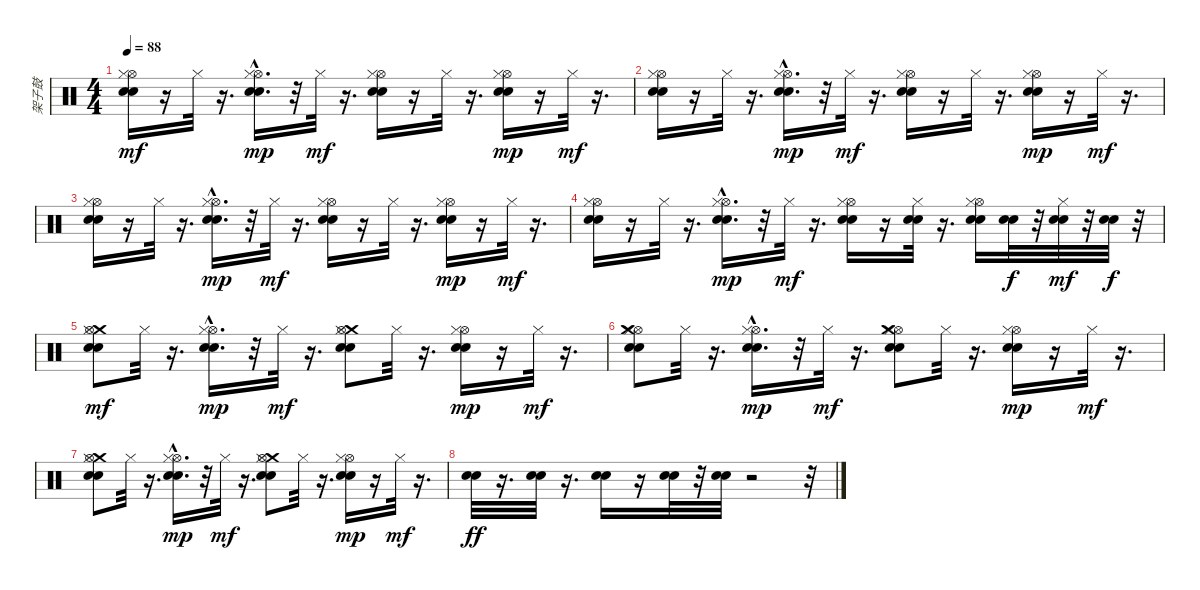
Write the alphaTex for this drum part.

\track ("架子鼓" "架子鼓") {instrument percussion}
\staff {score}
\articulation defaults
\ts (4 4)
\tempo 88
\clef neutral
\ks c
("Hi-Hat (open)" "Hi-Hat (closed)" "Electric Snare (hit)" "Electric Snare (hit)").16{dy mf} r.16 "Hi-Hat (closed)".32 r.16{d} ("Hi-Hat (open)"{hac} "Hi-Hat (closed)" "Electric Snare (hit)" "Metronome (bell)").16{d dy mp} r.32 "Hi-Hat (closed)".32{dy mf} r.16{d} ("Hi-Hat (open)" "Hi-Hat (closed)" "Electric Snare (hit)" "Electric Snare (hit)").16 r.16 "Hi-Hat (closed)".32 r.16{d} ("Hi-Hat (open)" "Hi-Hat (closed)" "Electric Snare (hit)" "Metronome (bell)").16{dy mp} r.16 "Hi-Hat (closed)".32{dy mf} r.16{d} |
("Hi-Hat (open)" "Hi-Hat (closed)" "Electric Snare (hit)" "Electric Snare (hit)").16 r.16 "Hi-Hat (closed)".32 r.16{d} ("Hi-Hat (open)"{hac} "Hi-Hat (closed)" "Electric Snare (hit)" "Metronome (bell)").16{d dy mp} r.32 "Hi-Hat (closed)".32{dy mf} r.16{d} ("Hi-Hat (open)" "Hi-Hat (closed)" "Electric Snare (hit)" "Electric Snare (hit)").16 r.16 "Hi-Hat (closed)".32 r.16{d} ("Hi-Hat (open)" "Hi-Hat (closed)" "Electric Snare (hit)" "Metronome (bell)").16{dy mp} r.16 "Hi-Hat (closed)".32{dy mf} r.16{d} |
("Hi-Hat (open)" "Hi-Hat (closed)" "Electric Snare (hit)" "Electric Snare (hit)").16 r.16 "Hi-Hat (closed)".32 r.16{d} ("Hi-Hat (open)"{hac} "Hi-Hat (closed)" "Electric Snare (hit)" "Metronome (bell)").16{d dy mp} r.32 "Hi-Hat (closed)".32{dy mf} r.16{d} ("Hi-Hat (open)" "Hi-Hat (closed)" "Electric Snare (hit)" "Electric Snare (hit)").16 r.16 "Hi-Hat (closed)".32 r.16{d} ("Hi-Hat (open)" "Hi-Hat (closed)" "Electric Snare (hit)" "Metronome (bell)").16{dy mp} r.16 "Hi-Hat (closed)".32{dy mf} r.16{d} |
("Hi-Hat (open)" "Hi-Hat (closed)" "Electric Snare (hit)" "Electric Snare (hit)").16 r.16 "Hi-Hat (closed)".32 r.16{d} ("Hi-Hat (open)"{hac} "Hi-Hat (closed)" "Electric Snare (hit)" "Metronome (bell)").16{d dy mp} r.32 "Hi-Hat (closed)".32{dy mf} r.16{d} ("Hi-Hat (open)" "Hi-Hat (closed)" "Electric Snare (hit)" "Metronome (bell)").16 r.16 ("Hi-Hat (closed)" "Electric Snare (hit)" "Metronome (bell)").32 r.16{d} ("Hi-Hat (open)" "Hi-Hat (closed)" "Electric Snare (hit)" "Metronome (bell)").16 ("Metronome (bell)" "Electric Snare (hit)").32{dy f} r.32 ("Hi-Hat (closed)" "Electric Snare (hit)" "Metronome (bell)").32{dy mf} r.32 ("Electric Snare (hit)" "Metronome (bell)").32{dy f} r.32 |
("Crash medium (hit)" "Hi-Hat (open)" "Hi-Hat (closed)" "Electric Snare (hit)" "Electric Snare (hit)").8{dy mf} "Hi-Hat (closed)".32 r.16{d} ("Hi-Hat (open)"{hac} "Hi-Hat (closed)" "Electric Snare (hit)" "Metronome (bell)").16{d dy mp} r.32 "Hi-Hat (closed)".32{dy mf} r.16{d} ("Crash medium (hit)" "Hi-Hat (open)" "Hi-Hat (closed)" "Electric Snare (hit)" "Electric Snare (hit)").8 "Hi-Hat (closed)".32 r.16{d} ("Hi-Hat (open)" "Hi-Hat (closed)" "Electric Snare (hit)" "Metronome (bell)").16{dy mp} r.16 "Hi-Hat (closed)".32{dy mf} r.16{d} |
("Hi-Hat (open)" "Hi-Hat (closed)" "Electric Snare (hit)" "Electric Snare (hit)" "Crash medium (hit)").8 "Hi-Hat (closed)".32 r.16{d} ("Hi-Hat (open)"{hac} "Hi-Hat (closed)" "Electric Snare (hit)" "Metronome (bell)").16{d dy mp} r.32 "Hi-Hat (closed)".32{dy mf} r.16{d} ("Hi-Hat (open)" "Hi-Hat (closed)" "Electric Snare (hit)" "Electric Snare (hit)" "Crash medium (hit)").8 "Hi-Hat (closed)".32 r.16{d} ("Hi-Hat (open)" "Hi-Hat (closed)" "Electric Snare (hit)" "Metronome (bell)").16{dy mp} r.16 "Hi-Hat (closed)".32{dy mf} r.16{d} |
("Crash medium (hit)" "Hi-Hat (open)" "Hi-Hat (closed)" "Electric Snare (hit)" "Electric Snare (hit)").8 "Hi-Hat (closed)".32 r.16{d} ("Hi-Hat (open)"{hac} "Hi-Hat (closed)" "Electric Snare (hit)" "Metronome (bell)").16{d dy mp} r.32 "Hi-Hat (closed)".32{dy mf} r.16{d} ("Crash medium (hit)" "Hi-Hat (open)" "Hi-Hat (closed)" "Electric Snare (hit)" "Electric Snare (hit)").8 "Hi-Hat (closed)".32 r.16{d} ("Hi-Hat (open)" "Hi-Hat (closed)" "Electric Snare (hit)" "Metronome (bell)").16{dy mp} r.16 "Hi-Hat (closed)".32{dy mf} r.16{d} |
("Electric Snare (hit)" "Metronome (bell)").32{dy ff} r.16{d} ("Electric Snare (hit)" "Metronome (bell)").32 r.16{d} ("Electric Snare (hit)" "Metronome (bell)").16 r.16 ("Electric Snare (hit)" "Metronome (bell)").32 r.32 ("Electric Snare (hit)" "Metronome (bell)").32 r.2 r.32
